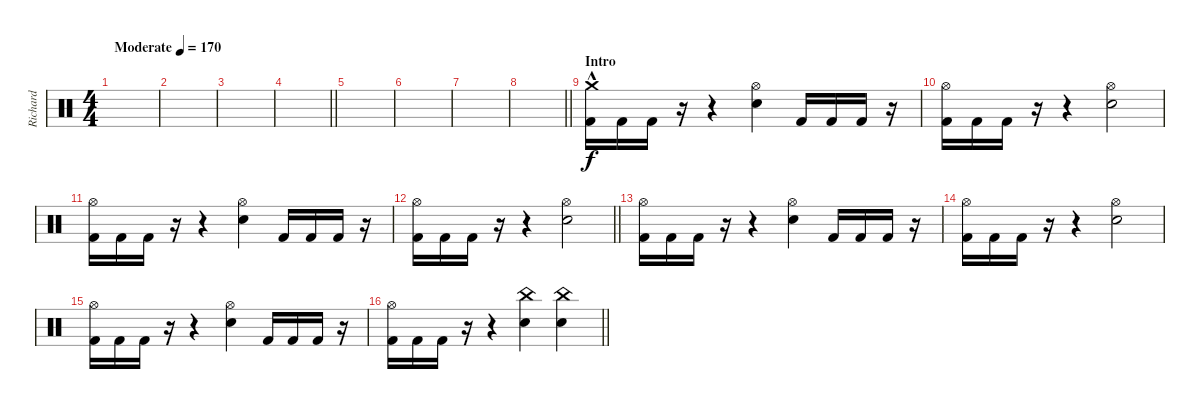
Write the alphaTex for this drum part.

\track ("Richard" "Richard") {instrument percussion}
\staff {score}
\articulation defaults
\ts (4 4)
\tempo (170 "Moderate")
\clef neutral
\ks c
|
|
|
\barLineRight lightlight
|
|
|
|
\barLineRight lightlight
|
\section ("" "Intro")
("Crash medium (hit)"{hac} "Kick (hit) 2").16 "Kick (hit) 2".16{dy f} "Kick (hit) 2".16 r.16 r.4 ("Hi-Hat (open)" "Electric Snare (hit)").4 "Kick (hit) 2".16 "Kick (hit) 2".16 "Kick (hit) 2".16 r.16 |
("Hi-Hat (open)" "Kick (hit) 2").16 "Kick (hit) 2".16 "Kick (hit) 2".16 r.16 r.4 ("Hi-Hat (open)" "Electric Snare (hit)").2 |
("Hi-Hat (open)" "Kick (hit) 2").16 "Kick (hit) 2".16 "Kick (hit) 2".16 r.16 r.4 ("Hi-Hat (open)" "Electric Snare (hit)").4 "Kick (hit) 2".16 "Kick (hit) 2".16 "Kick (hit) 2".16 r.16 |
\barLineRight lightlight
("Hi-Hat (open)" "Kick (hit) 2").16 "Kick (hit) 2".16 "Kick (hit) 2".16 r.16 r.4 ("Hi-Hat (open)" "Electric Snare (hit)").2 |
("Hi-Hat (open)" "Kick (hit) 2").16 "Kick (hit) 2".16 "Kick (hit) 2".16 r.16 r.4 ("Hi-Hat (open)" "Electric Snare (hit)").4 "Kick (hit) 2".16 "Kick (hit) 2".16 "Kick (hit) 2".16 r.16 |
("Hi-Hat (open)" "Kick (hit) 2").16 "Kick (hit) 2".16 "Kick (hit) 2".16 r.16 r.4 ("Hi-Hat (open)" "Electric Snare (hit)").2 |
("Hi-Hat (open)" "Kick (hit) 2").16 "Kick (hit) 2".16 "Kick (hit) 2".16 r.16 r.4 ("Hi-Hat (open)" "Electric Snare (hit)").4 "Kick (hit) 2".16 "Kick (hit) 2".16 "Kick (hit) 2".16 r.16 |
\barLineRight lightlight
("Hi-Hat (open)" "Kick (hit) 2").16 "Kick (hit) 2".16 "Kick (hit) 2".16 r.16 r.4 ("China (hit)" "Electric Snare (hit)").4 ("China (hit)" "Electric Snare (hit)").4
